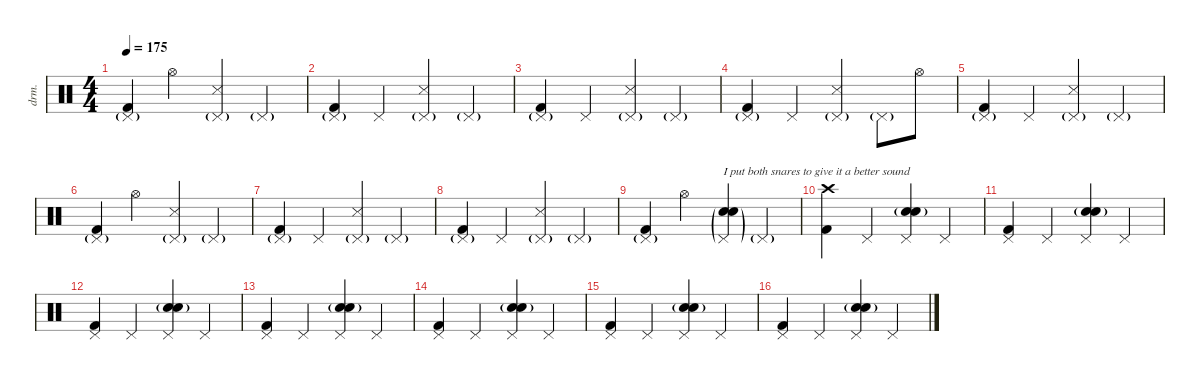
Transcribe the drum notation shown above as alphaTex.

\defaultSystemsLayout 4
\hideDynamics
\bracketExtendMode nobrackets
\otherSystemsTrackNameOrientation horizontal
\track ("Percussion" "drm.") {instrument percussion}
\staff {score}
\articulation defaults
\ts (4 4)
\tempo 175
\clef neutral
\ks c
("Pedal Hi-Hat (hit)"{g} "Kick (hit) 2").4{dy f} "Hi-Hat (open)".4 ("Pedal Hi-Hat (hit)"{g} "Snare (side stick) 3").4 "Pedal Hi-Hat (hit)"{g}.4 |
("Pedal Hi-Hat (hit)"{g} "Kick (hit) 2").4 "Pedal Hi-Hat (hit)".4 ("Pedal Hi-Hat (hit)"{g} "Snare (side stick) 3").4 "Pedal Hi-Hat (hit)"{g}.4 |
("Pedal Hi-Hat (hit)"{g} "Kick (hit) 2").4 "Pedal Hi-Hat (hit)".4 ("Pedal Hi-Hat (hit)"{g} "Snare (side stick) 3").4 "Pedal Hi-Hat (hit)"{g}.4 |
("Pedal Hi-Hat (hit)"{g} "Kick (hit) 2").4 "Pedal Hi-Hat (hit)".4 ("Pedal Hi-Hat (hit)"{g} "Snare (side stick) 3").4 "Pedal Hi-Hat (hit)"{g}.8 "Hi-Hat (open)".8{dy mf} |
("Pedal Hi-Hat (hit)"{g} "Kick (hit) 2").4{dy f} "Pedal Hi-Hat (hit)".4 ("Pedal Hi-Hat (hit)"{g} "Snare (side stick) 3").4 "Pedal Hi-Hat (hit)"{g}.4 |
("Pedal Hi-Hat (hit)"{g} "Kick (hit) 2").4 "Hi-Hat (open)".4 ("Pedal Hi-Hat (hit)"{g} "Snare (side stick) 3").4 "Pedal Hi-Hat (hit)"{g}.4 |
("Pedal Hi-Hat (hit)"{g} "Kick (hit) 2").4 "Pedal Hi-Hat (hit)".4 ("Pedal Hi-Hat (hit)"{g} "Snare (side stick) 3").4 "Pedal Hi-Hat (hit)"{g}.4 |
("Pedal Hi-Hat (hit)"{g} "Kick (hit) 2").4 "Pedal Hi-Hat (hit)".4 ("Pedal Hi-Hat (hit)"{g} "Snare (side stick) 3").4 "Pedal Hi-Hat (hit)"{g}.4 |
("Pedal Hi-Hat (hit)"{g} "Kick (hit) 2").4 "Hi-Hat (open)".4 ("Pedal Hi-Hat (hit)"{g} "Snare (hit) 2" "Snare (hit) 2"{g}).4{txt "I put both snares to give it a better sound"} "Pedal Hi-Hat (hit)"{g}.4 |
("Crash high (hit)" "Kick (hit) 2").4 "Pedal Hi-Hat (hit)".4 ("Pedal Hi-Hat (hit)" "Snare (hit) 2" "Snare (hit) 2"{g}).4 "Pedal Hi-Hat (hit)".4 |
("Pedal Hi-Hat (hit)" "Kick (hit) 2").4 "Pedal Hi-Hat (hit)".4 ("Pedal Hi-Hat (hit)" "Snare (hit) 2" "Snare (hit) 2"{g}).4 "Pedal Hi-Hat (hit)".4 |
("Pedal Hi-Hat (hit)" "Kick (hit) 2").4 "Pedal Hi-Hat (hit)".4 ("Pedal Hi-Hat (hit)" "Snare (hit) 2" "Snare (hit) 2"{g}).4 "Pedal Hi-Hat (hit)".4 |
("Pedal Hi-Hat (hit)" "Kick (hit) 2").4 "Pedal Hi-Hat (hit)".4 ("Pedal Hi-Hat (hit)" "Snare (hit) 2" "Snare (hit) 2"{g}).4 "Pedal Hi-Hat (hit)".4 |
("Pedal Hi-Hat (hit)" "Kick (hit) 2").4 "Pedal Hi-Hat (hit)".4 ("Pedal Hi-Hat (hit)" "Snare (hit) 2" "Snare (hit) 2"{g}).4 "Pedal Hi-Hat (hit)".4 |
("Pedal Hi-Hat (hit)" "Kick (hit) 2").4 "Pedal Hi-Hat (hit)".4 ("Pedal Hi-Hat (hit)" "Snare (hit) 2" "Snare (hit) 2"{g}).4 "Pedal Hi-Hat (hit)".4 |
("Pedal Hi-Hat (hit)" "Kick (hit) 2").4 "Pedal Hi-Hat (hit)".4 ("Pedal Hi-Hat (hit)" "Snare (hit) 2" "Snare (hit) 2"{g}).4 "Pedal Hi-Hat (hit)".4
